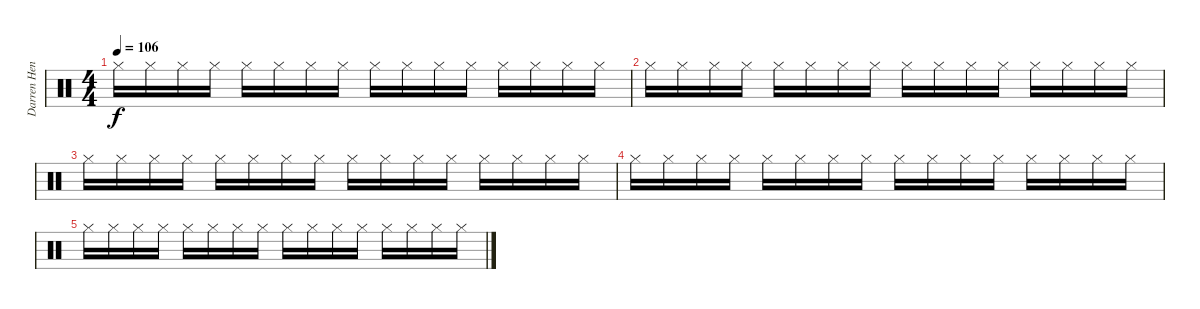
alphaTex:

\track ("Darren Henley [Drums]" "Darren Hen") {instrument percussion}
\staff {score}
\articulation defaults
\ts (4 4)
\tempo 106
\clef neutral
\ks c "Hi-Hat (closed)".16{dy f} "Hi-Hat (closed)".16 "Hi-Hat (closed)".16 "Hi-Hat (closed)".16 "Hi-Hat (closed)".16 "Hi-Hat (closed)".16 "Hi-Hat (closed)".16 "Hi-Hat (closed)".16 "Hi-Hat (closed)".16 "Hi-Hat (closed)".16 "Hi-Hat (closed)".16 "Hi-Hat (closed)".16 "Hi-Hat (closed)".16 "Hi-Hat (closed)".16 "Hi-Hat (closed)".16 "Hi-Hat (closed)".16
|
"Hi-Hat (closed)".16 "Hi-Hat (closed)".16 "Hi-Hat (closed)".16 "Hi-Hat (closed)".16 "Hi-Hat (closed)".16 "Hi-Hat (closed)".16 "Hi-Hat (closed)".16 "Hi-Hat (closed)".16 "Hi-Hat (closed)".16 "Hi-Hat (closed)".16 "Hi-Hat (closed)".16 "Hi-Hat (closed)".16 "Hi-Hat (closed)".16 "Hi-Hat (closed)".16 "Hi-Hat (closed)".16 "Hi-Hat (closed)".16 |
"Hi-Hat (closed)".16 "Hi-Hat (closed)".16 "Hi-Hat (closed)".16 "Hi-Hat (closed)".16 "Hi-Hat (closed)".16 "Hi-Hat (closed)".16 "Hi-Hat (closed)".16 "Hi-Hat (closed)".16 "Hi-Hat (closed)".16 "Hi-Hat (closed)".16 "Hi-Hat (closed)".16 "Hi-Hat (closed)".16 "Hi-Hat (closed)".16 "Hi-Hat (closed)".16 "Hi-Hat (closed)".16 "Hi-Hat (closed)".16 |
"Hi-Hat (closed)".16 "Hi-Hat (closed)".16 "Hi-Hat (closed)".16 "Hi-Hat (closed)".16 "Hi-Hat (closed)".16 "Hi-Hat (closed)".16 "Hi-Hat (closed)".16 "Hi-Hat (closed)".16 "Hi-Hat (closed)".16 "Hi-Hat (closed)".16 "Hi-Hat (closed)".16 "Hi-Hat (closed)".16 "Hi-Hat (closed)".16 "Hi-Hat (closed)".16 "Hi-Hat (closed)".16 "Hi-Hat (closed)".16 |
"Hi-Hat (closed)".16 "Hi-Hat (closed)".16 "Hi-Hat (closed)".16 "Hi-Hat (closed)".16 "Hi-Hat (closed)".16 "Hi-Hat (closed)".16 "Hi-Hat (closed)".16 "Hi-Hat (closed)".16 "Hi-Hat (closed)".16 "Hi-Hat (closed)".16 "Hi-Hat (closed)".16 "Hi-Hat (closed)".16 "Hi-Hat (closed)".16 "Hi-Hat (closed)".16 "Hi-Hat (closed)".16 "Hi-Hat (closed)".16
